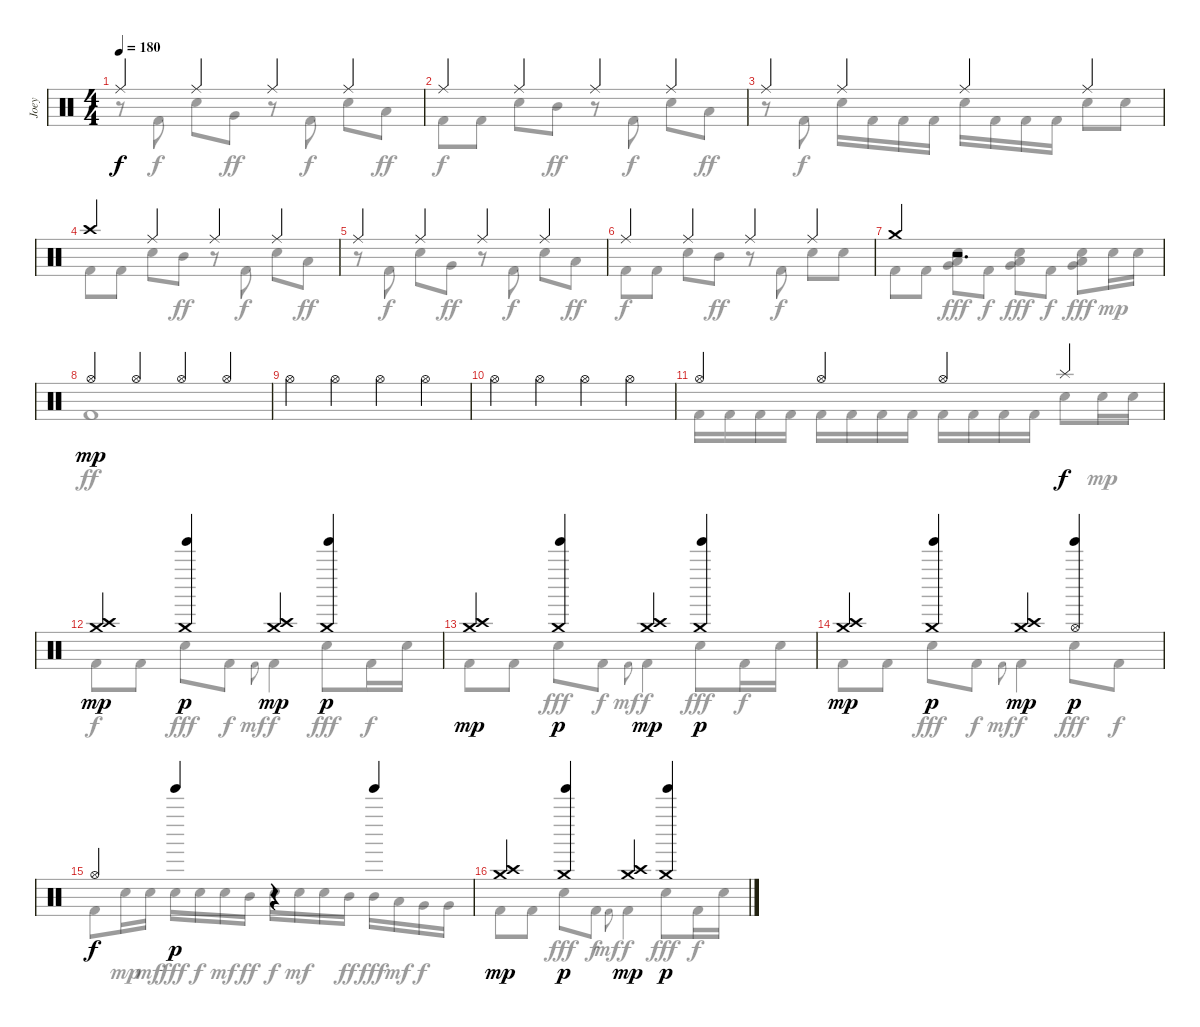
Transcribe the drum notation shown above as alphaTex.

\track ("Joey" "Joey") {instrument percussion}
\staff {score}
\articulation defaults
\voice
\ts (4 4)
\tempo 180
\clef neutral
\ks c "Ride (middle)".4{dy f} "Ride (middle)".4 "Ride (middle)".4 "Ride (middle)".4
|
"Ride (middle)".4 "Ride (middle)".4 "Ride (middle)".4 "Ride (middle)".4 |
"Ride (middle)".4 "Ride (middle)".4 "Ride (middle)".4 "Ride (middle)".4 |
"Crash high (hit)".4 "Ride (middle)".4 "Ride (middle)".4 "Ride (middle)".4 |
"Ride (middle)".4 "Ride (middle)".4 "Ride (middle)".4 "Ride (middle)".4 |
"Ride (middle)".4 "Ride (middle)".4 "Ride (middle)".4 "Ride (middle)".4 |
"Crash medium (hit)".4 r.2{d} |
"Hi-Hat (open)".4{dy mp} "Hi-Hat (open)".4 "Hi-Hat (open)".4 "Hi-Hat (open)".4 |
"Hi-Hat (open)".4 "Hi-Hat (open)".4 "Hi-Hat (open)".4 "Hi-Hat (open)".4 |
"Hi-Hat (open)".4 "Hi-Hat (open)".4 "Hi-Hat (open)".4 "Hi-Hat (open)".4 |
"Hi-Hat (open)".4 "Hi-Hat (open)".4 "Hi-Hat (open)".4 "Splash (hit)".4{dy f} |
("Crash medium (hit)" "Crash high (hit)").4{dy mp} ("Crash medium (hit)" "Tinkle Bell (hit)").4{dy p} ("Crash medium (hit)" "Crash high (hit)").4{dy mp} ("Crash medium (hit)" "Tinkle Bell (hit)").4{dy p} |
("Crash medium (hit)" "Crash high (hit)").4{dy mp} ("Crash medium (hit)" "Tinkle Bell (hit)").4{dy p} ("Crash medium (hit)" "Crash high (hit)").4{dy mp} ("Crash medium (hit)" "Tinkle Bell (hit)").4{dy p} |
("Crash medium (hit)" "Crash high (hit)").4{dy mp} ("Crash medium (hit)" "Tinkle Bell (hit)").4{dy p} ("Crash medium (hit)" "Crash high (hit)").4{dy mp} ("Hi-Hat (open)" "Tinkle Bell (hit)").4{dy p} |
"Hi-Hat (open)".4{dy f} "Tinkle Bell (hit)".4{dy p} r.4 "Tinkle Bell (hit)".4 |
("Crash medium (hit)" "Crash high (hit)").4{dy mp} ("Crash medium (hit)" "Tinkle Bell (hit)").4{dy p} ("Crash medium (hit)" "Crash high (hit)").4{dy mp} ("Crash medium (hit)" "Tinkle Bell (hit)").4{dy p}
\voice
\clef neutral
\ottava regular
\simile none
\ks c
r.8{dy ff} "Kick (hit) 2".8{dy f} "Electric Snare (hit)".8 "Very Low Tom (hit)".8{dy ff} r.8 "Kick (hit) 2".8{dy f} "Electric Snare (hit)".8 "Low Floor Tom (hit)".8{dy ff} |
"Kick (hit) 2".8{dy f} "Kick (hit) 2".8 "Electric Snare (hit)".8 "Mid Tom (hit)".8{dy ff} r.8 "Kick (hit) 2".8{dy f} "Electric Snare (hit)".8 "Low Tom (hit)".8{dy ff} |
r.8 "Kick (hit) 2".8{dy f} "Electric Snare (hit)".16 "Kick (hit) 2".16 "Kick (hit) 2".16 "Kick (hit) 2".16 "Electric Snare (hit)".16 "Kick (hit) 2".16 "Kick (hit) 2".16 "Kick (hit) 2".16 "Electric Snare (hit)".8 "Electric Snare (hit)".8 |
"Kick (hit) 2".8 "Kick (hit) 2".8 "Electric Snare (hit)".8 "Mid Tom (hit)".8{dy ff} r.8 "Kick (hit) 2".8{dy f} "Electric Snare (hit)".8 "Low Tom (hit)".8{dy ff} |
r.8 "Kick (hit) 2".8{dy f} "Electric Snare (hit)".8 "Very Low Tom (hit)".8{dy ff} r.8 "Kick (hit) 2".8{dy f} "Electric Snare (hit)".8 "Low Floor Tom (hit)".8{dy ff} |
"Kick (hit) 2".8{dy f} "Kick (hit) 2".8 "Electric Snare (hit)".8 "Mid Tom (hit)".8{dy ff} r.8 "Kick (hit) 2".8{dy f} "Electric Snare (hit)".8 "Electric Snare (hit)".8 |
"Kick (hit) 2".8 "Kick (hit) 2".8 ("Very Low Tom (hit)" "Low Floor Tom (hit)" "Electric Snare (hit)").8{dy fff} "Kick (hit) 2".8{dy f} ("Very Low Tom (hit)" "Low Floor Tom (hit)" "Electric Snare (hit)").8{dy fff} "Kick (hit) 2".8{dy f} ("Very Low Tom (hit)" "Low Floor Tom (hit)" "Electric Snare (hit)").8{dy fff} "Electric Snare (hit)".16{dy mp} "Electric Snare (hit)".16 |
"Kick (hit) 2".1{dy ff} |
|
|
"Kick (hit) 2".16 "Kick (hit) 2".16 "Kick (hit) 2".16 "Kick (hit) 2".16 "Kick (hit) 2".16 "Kick (hit) 2".16 "Kick (hit) 2".16 "Kick (hit) 2".16 "Kick (hit) 2".16 "Kick (hit) 2".16 "Kick (hit) 2".16 "Kick (hit) 2".16 "Electric Snare (hit)".8 "Electric Snare (hit)".16{dy mp} "Electric Snare (hit)".16 |
"Kick (hit) 2".8{dy f} "Kick (hit) 2".8 "Electric Snare (hit)".8{dy fff} "Kick (hit) 2".8{dy f} "Kick (hit) 2".8{gr onbeat dy mf} "Kick (hit) 2".4{dy f} "Electric Snare (hit)".8{dy fff} "Kick (hit) 2".16{dy f} "Electric Snare (hit)".16 |
"Kick (hit) 2".8 "Kick (hit) 2".8 "Electric Snare (hit)".8{dy fff} "Kick (hit) 2".8{dy f} "Kick (hit) 2".8{gr onbeat dy mf} "Kick (hit) 2".4{dy f} "Electric Snare (hit)".8{dy fff} "Kick (hit) 2".16{dy f} "Electric Snare (hit)".16 |
"Kick (hit) 2".8 "Kick (hit) 2".8 "Electric Snare (hit)".8{dy fff} "Kick (hit) 2".8{dy f} "Kick (hit) 2".8{gr onbeat dy mf} "Kick (hit) 2".4{dy f} "Electric Snare (hit)".8{dy fff} "Kick (hit) 2".8{dy f} |
"Kick (hit) 2".8 "Electric Snare (hit)".16{dy mp} "Electric Snare (hit)".16{dy mf} "Electric Snare (hit)".16{dy fff} "Electric Snare (hit)".16{dy f} "Electric Snare (hit)".16{dy mf} "Mid Tom (hit)".16{dy ff} "Electric Snare (hit)".16{dy f} "Electric Snare (hit)".16{dy mf} "Electric Snare (hit)".16 "Mid Tom (hit)".16{dy ff} "Mid Tom (hit)".16{dy fff} "Low Tom (hit)".16{dy mf} "Very Low Tom (hit)".16{dy f} "Very Low Tom (hit)".16 |
"Kick (hit) 2".8 "Kick (hit) 2".8 "Electric Snare (hit)".8{dy fff} "Kick (hit) 2".8{dy f} "Kick (hit) 2".8{gr onbeat dy mf} "Kick (hit) 2".4{dy f} "Electric Snare (hit)".8{dy fff} "Kick (hit) 2".16{dy f} "Electric Snare (hit)".16
